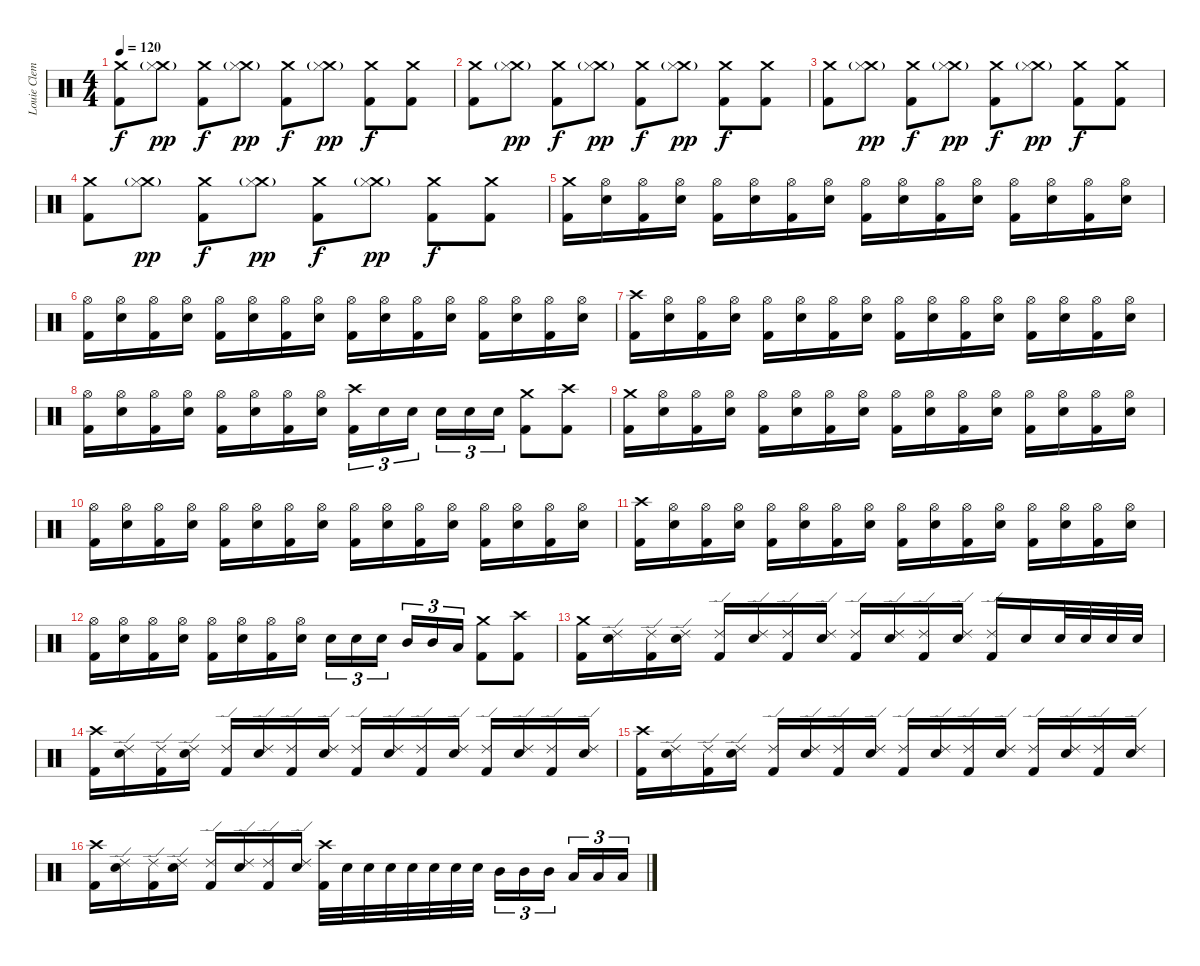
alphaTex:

\track ("Louie Clemente" "Louie Clem") {instrument percussion}
\staff {score}
\articulation defaults
\ts (4 4)
\tempo 120
\clef neutral
\ks c
("Crash medium (hit)" "Kick (hit) 2").8{dy f} ("Crash medium (hit)"{g} "Hi-Hat (closed)").8{dy pp} ("Crash medium (hit)" "Kick (hit) 2").8{dy f} ("Crash medium (hit)"{g} "Hi-Hat (closed)").8{dy pp} ("Crash medium (hit)" "Kick (hit) 2").8{dy f} ("Crash medium (hit)"{g} "Hi-Hat (closed)").8{dy pp} ("Crash medium (hit)" "Kick (hit) 2").8{dy f} ("Crash medium (hit)" "Kick (hit) 2").8 |
("Crash medium (hit)" "Kick (hit) 2").8 ("Crash medium (hit)"{g} "Hi-Hat (closed)").8{dy pp} ("Crash medium (hit)" "Kick (hit) 2").8{dy f} ("Crash medium (hit)"{g} "Hi-Hat (closed)").8{dy pp} ("Crash medium (hit)" "Kick (hit) 2").8{dy f} ("Crash medium (hit)"{g} "Hi-Hat (closed)").8{dy pp} ("Crash medium (hit)" "Kick (hit) 2").8{dy f} ("Crash medium (hit)" "Kick (hit) 2").8 |
("Crash medium (hit)" "Kick (hit) 2").8 ("Crash medium (hit)"{g} "Hi-Hat (closed)").8{dy pp} ("Crash medium (hit)" "Kick (hit) 2").8{dy f} ("Crash medium (hit)"{g} "Hi-Hat (closed)").8{dy pp} ("Crash medium (hit)" "Kick (hit) 2").8{dy f} ("Crash medium (hit)"{g} "Hi-Hat (closed)").8{dy pp} ("Crash medium (hit)" "Kick (hit) 2").8{dy f} ("Crash medium (hit)" "Kick (hit) 2").8 |
("Crash medium (hit)" "Kick (hit) 2").8 ("Crash medium (hit)"{g} "Hi-Hat (closed)").8{dy pp} ("Crash medium (hit)" "Kick (hit) 2").8{dy f} ("Crash medium (hit)"{g} "Hi-Hat (closed)").8{dy pp} ("Crash medium (hit)" "Kick (hit) 2").8{dy f} ("Crash medium (hit)"{g} "Hi-Hat (closed)").8{dy pp} ("Crash medium (hit)" "Kick (hit) 2").8{dy f} ("Crash medium (hit)" "Kick (hit) 2").8 |
("Crash medium (hit)" "Kick (hit) 2").16 ("Hi-Hat (open)" "Snare (hit) 2").16 ("Hi-Hat (open)" "Kick (hit) 2").16 ("Hi-Hat (open)" "Snare (hit) 2").16 ("Hi-Hat (open)" "Kick (hit) 2").16 ("Hi-Hat (open)" "Snare (hit) 2").16 ("Hi-Hat (open)" "Kick (hit) 2").16 ("Hi-Hat (open)" "Snare (hit) 2").16 ("Hi-Hat (open)" "Kick (hit) 2").16 ("Hi-Hat (open)" "Snare (hit) 2").16 ("Hi-Hat (open)" "Kick (hit) 2").16 ("Hi-Hat (open)" "Snare (hit) 2").16 ("Hi-Hat (open)" "Kick (hit) 2").16 ("Hi-Hat (open)" "Snare (hit) 2").16 ("Hi-Hat (open)" "Kick (hit) 2").16 ("Hi-Hat (open)" "Snare (hit) 2").16 |
("Hi-Hat (open)" "Kick (hit) 2").16 ("Hi-Hat (open)" "Snare (hit) 2").16 ("Hi-Hat (open)" "Kick (hit) 2").16 ("Hi-Hat (open)" "Snare (hit) 2").16 ("Hi-Hat (open)" "Kick (hit) 2").16 ("Hi-Hat (open)" "Snare (hit) 2").16 ("Hi-Hat (open)" "Kick (hit) 2").16 ("Hi-Hat (open)" "Snare (hit) 2").16 ("Hi-Hat (open)" "Kick (hit) 2").16 ("Hi-Hat (open)" "Snare (hit) 2").16 ("Hi-Hat (open)" "Kick (hit) 2").16 ("Hi-Hat (open)" "Snare (hit) 2").16 ("Hi-Hat (open)" "Kick (hit) 2").16 ("Hi-Hat (open)" "Snare (hit) 2").16 ("Hi-Hat (open)" "Kick (hit) 2").16 ("Hi-Hat (open)" "Snare (hit) 2").16 |
("Crash high (hit)" "Kick (hit) 2").16 ("Hi-Hat (open)" "Snare (hit) 2").16 ("Hi-Hat (open)" "Kick (hit) 2").16 ("Hi-Hat (open)" "Snare (hit) 2").16 ("Hi-Hat (open)" "Kick (hit) 2").16 ("Hi-Hat (open)" "Snare (hit) 2").16 ("Hi-Hat (open)" "Kick (hit) 2").16 ("Hi-Hat (open)" "Snare (hit) 2").16 ("Hi-Hat (open)" "Kick (hit) 2").16 ("Hi-Hat (open)" "Snare (hit) 2").16 ("Hi-Hat (open)" "Kick (hit) 2").16 ("Hi-Hat (open)" "Snare (hit) 2").16 ("Hi-Hat (open)" "Kick (hit) 2").16 ("Hi-Hat (open)" "Snare (hit) 2").16 ("Hi-Hat (open)" "Kick (hit) 2").16 ("Hi-Hat (open)" "Snare (hit) 2").16 |
("Hi-Hat (open)" "Kick (hit) 2").16 ("Hi-Hat (open)" "Snare (hit) 2").16 ("Hi-Hat (open)" "Kick (hit) 2").16 ("Hi-Hat (open)" "Snare (hit) 2").16 ("Hi-Hat (open)" "Kick (hit) 2").16 ("Hi-Hat (open)" "Snare (hit) 2").16 ("Hi-Hat (open)" "Kick (hit) 2").16 ("Hi-Hat (open)" "Snare (hit) 2").16 ("Crash high (hit)" "Kick (hit) 2").16{tu (3 2)} "Snare (hit) 2".16{tu (3 2)} "Snare (hit) 2".16{tu (3 2)} "Snare (hit) 2".16{tu (3 2)} "Snare (hit) 2".16{tu (3 2)} "Snare (hit) 2".16{tu (3 2)} ("Crash medium (hit)" "Kick (hit) 2").8 ("Crash high (hit)" "Kick (hit) 2").8 |
("Crash medium (hit)" "Kick (hit) 2").16 ("Hi-Hat (open)" "Snare (hit) 2").16 ("Hi-Hat (open)" "Kick (hit) 2").16 ("Hi-Hat (open)" "Snare (hit) 2").16 ("Hi-Hat (open)" "Kick (hit) 2").16 ("Hi-Hat (open)" "Snare (hit) 2").16 ("Hi-Hat (open)" "Kick (hit) 2").16 ("Hi-Hat (open)" "Snare (hit) 2").16 ("Hi-Hat (open)" "Kick (hit) 2").16 ("Hi-Hat (open)" "Snare (hit) 2").16 ("Hi-Hat (open)" "Kick (hit) 2").16 ("Hi-Hat (open)" "Snare (hit) 2").16 ("Hi-Hat (open)" "Kick (hit) 2").16 ("Hi-Hat (open)" "Snare (hit) 2").16 ("Hi-Hat (open)" "Kick (hit) 2").16 ("Hi-Hat (open)" "Snare (hit) 2").16 |
("Hi-Hat (open)" "Kick (hit) 2").16 ("Hi-Hat (open)" "Snare (hit) 2").16 ("Hi-Hat (open)" "Kick (hit) 2").16 ("Hi-Hat (open)" "Snare (hit) 2").16 ("Hi-Hat (open)" "Kick (hit) 2").16 ("Hi-Hat (open)" "Snare (hit) 2").16 ("Hi-Hat (open)" "Kick (hit) 2").16 ("Hi-Hat (open)" "Snare (hit) 2").16 ("Hi-Hat (open)" "Kick (hit) 2").16 ("Hi-Hat (open)" "Snare (hit) 2").16 ("Hi-Hat (open)" "Kick (hit) 2").16 ("Hi-Hat (open)" "Snare (hit) 2").16 ("Hi-Hat (open)" "Kick (hit) 2").16 ("Hi-Hat (open)" "Snare (hit) 2").16 ("Hi-Hat (open)" "Kick (hit) 2").16 ("Hi-Hat (open)" "Snare (hit) 2").16 |
("Crash high (hit)" "Kick (hit) 2").16 ("Hi-Hat (open)" "Snare (hit) 2").16 ("Hi-Hat (open)" "Kick (hit) 2").16 ("Hi-Hat (open)" "Snare (hit) 2").16 ("Hi-Hat (open)" "Kick (hit) 2").16 ("Hi-Hat (open)" "Snare (hit) 2").16 ("Hi-Hat (open)" "Kick (hit) 2").16 ("Hi-Hat (open)" "Snare (hit) 2").16 ("Hi-Hat (open)" "Kick (hit) 2").16 ("Hi-Hat (open)" "Snare (hit) 2").16 ("Hi-Hat (open)" "Kick (hit) 2").16 ("Hi-Hat (open)" "Snare (hit) 2").16 ("Hi-Hat (open)" "Kick (hit) 2").16 ("Hi-Hat (open)" "Snare (hit) 2").16 ("Hi-Hat (open)" "Kick (hit) 2").16 ("Hi-Hat (open)" "Snare (hit) 2").16 |
("Hi-Hat (open)" "Kick (hit) 2").16 ("Hi-Hat (open)" "Snare (hit) 2").16 ("Hi-Hat (open)" "Kick (hit) 2").16 ("Hi-Hat (open)" "Snare (hit) 2").16 ("Hi-Hat (open)" "Kick (hit) 2").16 ("Hi-Hat (open)" "Snare (hit) 2").16 ("Hi-Hat (open)" "Kick (hit) 2").16 ("Hi-Hat (open)" "Snare (hit) 2").16 "Snare (hit) 2".16{tu (3 2)} "Snare (hit) 2".16{tu (3 2)} "Snare (hit) 2".16{tu (3 2)} "Mid Tom (hit)".16{tu (3 2)} "Mid Tom (hit)".16{tu (3 2)} "Low Tom (hit)".16{tu (3 2)} ("Crash medium (hit)" "Kick (hit) 2").8 ("Crash high (hit)" "Kick (hit) 2").8 |
("Crash medium (hit)" "Kick (hit) 2").16 ("Ride (edge) 2" "Snare (hit) 2").16 ("Ride (edge) 2" "Kick (hit) 2").16 ("Ride (edge) 2" "Snare (hit) 2").16 ("Ride (edge) 2" "Kick (hit) 2").16 ("Ride (edge) 2" "Snare (hit) 2").16 ("Ride (edge) 2" "Kick (hit) 2").16 ("Ride (edge) 2" "Snare (hit) 2").16 ("Ride (edge) 2" "Kick (hit) 2").16 ("Ride (edge) 2" "Snare (hit) 2").16 ("Ride (edge) 2" "Kick (hit) 2").16 ("Ride (edge) 2" "Snare (hit) 2").16 ("Ride (edge) 2" "Kick (hit) 2").16 "Snare (hit) 2".16 "Snare (hit) 2".32 "Snare (hit) 2".32 "Snare (hit) 2".32 "Snare (hit) 2".32 |
("Crash high (hit)" "Kick (hit) 2").16 ("Ride (edge) 2" "Snare (hit) 2").16 ("Ride (edge) 2" "Kick (hit) 2").16 ("Ride (edge) 2" "Snare (hit) 2").16 ("Ride (edge) 2" "Kick (hit) 2").16 ("Ride (edge) 2" "Snare (hit) 2").16 ("Ride (edge) 2" "Kick (hit) 2").16 ("Ride (edge) 2" "Snare (hit) 2").16 ("Ride (edge) 2" "Kick (hit) 2").16 ("Ride (edge) 2" "Snare (hit) 2").16 ("Ride (edge) 2" "Kick (hit) 2").16 ("Ride (edge) 2" "Snare (hit) 2").16 ("Ride (edge) 2" "Kick (hit) 2").16 ("Ride (edge) 2" "Snare (hit) 2").16 ("Ride (edge) 2" "Kick (hit) 2").16 ("Ride (edge) 2" "Snare (hit) 2").16 |
("Crash high (hit)" "Kick (hit) 2").16 ("Ride (edge) 2" "Snare (hit) 2").16 ("Ride (edge) 2" "Kick (hit) 2").16 ("Ride (edge) 2" "Snare (hit) 2").16 ("Ride (edge) 2" "Kick (hit) 2").16 ("Ride (edge) 2" "Snare (hit) 2").16 ("Ride (edge) 2" "Kick (hit) 2").16 ("Ride (edge) 2" "Snare (hit) 2").16 ("Ride (edge) 2" "Kick (hit) 2").16 ("Ride (edge) 2" "Snare (hit) 2").16 ("Ride (edge) 2" "Kick (hit) 2").16 ("Ride (edge) 2" "Snare (hit) 2").16 ("Ride (edge) 2" "Kick (hit) 2").16 ("Ride (edge) 2" "Snare (hit) 2").16 ("Ride (edge) 2" "Kick (hit) 2").16 ("Ride (edge) 2" "Snare (hit) 2").16 |
("Crash high (hit)" "Kick (hit) 2").16 ("Ride (edge) 2" "Snare (hit) 2").16 ("Ride (edge) 2" "Kick (hit) 2").16 ("Ride (edge) 2" "Snare (hit) 2").16 ("Ride (edge) 2" "Kick (hit) 2").16 ("Ride (edge) 2" "Snare (hit) 2").16 ("Ride (edge) 2" "Kick (hit) 2").16 ("Ride (edge) 2" "Snare (hit) 2").16 ("Crash high (hit)" "Kick (hit) 2").32 "Snare (hit) 2".32 "Snare (hit) 2".32 "Snare (hit) 2".32 "Snare (hit) 2".32 "Snare (hit) 2".32 "Snare (hit) 2".32 "Snare (hit) 2".32 "Mid Tom (hit)".16{tu (3 2)} "Mid Tom (hit)".16{tu (3 2)} "Mid Tom (hit)".16{tu (3 2)} "Low Tom (hit)".16{tu (3 2)} "Low Tom (hit)".16{tu (3 2)} "Low Tom (hit)".16{tu (3 2)}
